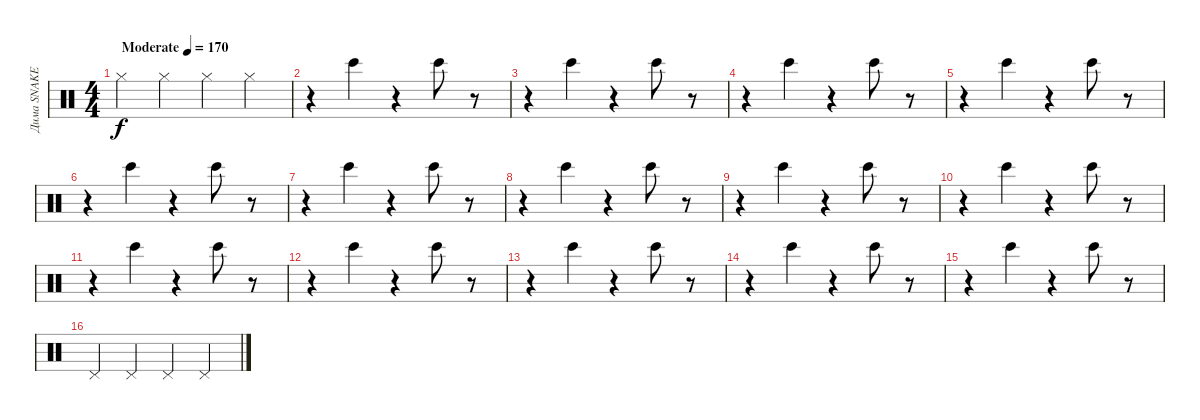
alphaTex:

\track ("Дима SNAKE" "Дима SNAKE") {instrument percussion}
\staff {score}
\articulation defaults
\ts (4 4)
\tempo (170 "Moderate")
\clef neutral
\ks c "Hi-Hat (closed)".4{dy f} "Hi-Hat (closed)".4 "Hi-Hat (closed)".4 "Hi-Hat (closed)".4
|
r.4 "Bongo High (hit)".4 r.4 "Bongo High (hit)".8 r.8 |
r.4 "Bongo High (hit)".4 r.4 "Bongo High (hit)".8 r.8 |
r.4 "Bongo High (hit)".4 r.4 "Bongo High (hit)".8 r.8 |
r.4 "Bongo High (hit)".4 r.4 "Bongo High (hit)".8 r.8 |
r.4 "Bongo High (hit)".4 r.4 "Bongo High (hit)".8 r.8 |
r.4 "Bongo High (hit)".4 r.4 "Bongo High (hit)".8 r.8 |
r.4 "Bongo High (hit)".4 r.4 "Bongo High (hit)".8 r.8 |
r.4 "Bongo High (hit)".4 r.4 "Bongo High (hit)".8 r.8 |
r.4 "Bongo High (hit)".4 r.4 "Bongo High (hit)".8 r.8 |
r.4 "Bongo High (hit)".4 r.4 "Bongo High (hit)".8 r.8 |
r.4 "Bongo High (hit)".4 r.4 "Bongo High (hit)".8 r.8 |
r.4 "Bongo High (hit)".4 r.4 "Bongo High (hit)".8 r.8 |
r.4 "Bongo High (hit)".4 r.4 "Bongo High (hit)".8 r.8 |
r.4 "Bongo High (hit)".4 r.4 "Bongo High (hit)".8 r.8 |
"Pedal Hi-Hat (hit)".4 "Pedal Hi-Hat (hit)".4 "Pedal Hi-Hat (hit)".4 "Pedal Hi-Hat (hit)".4
